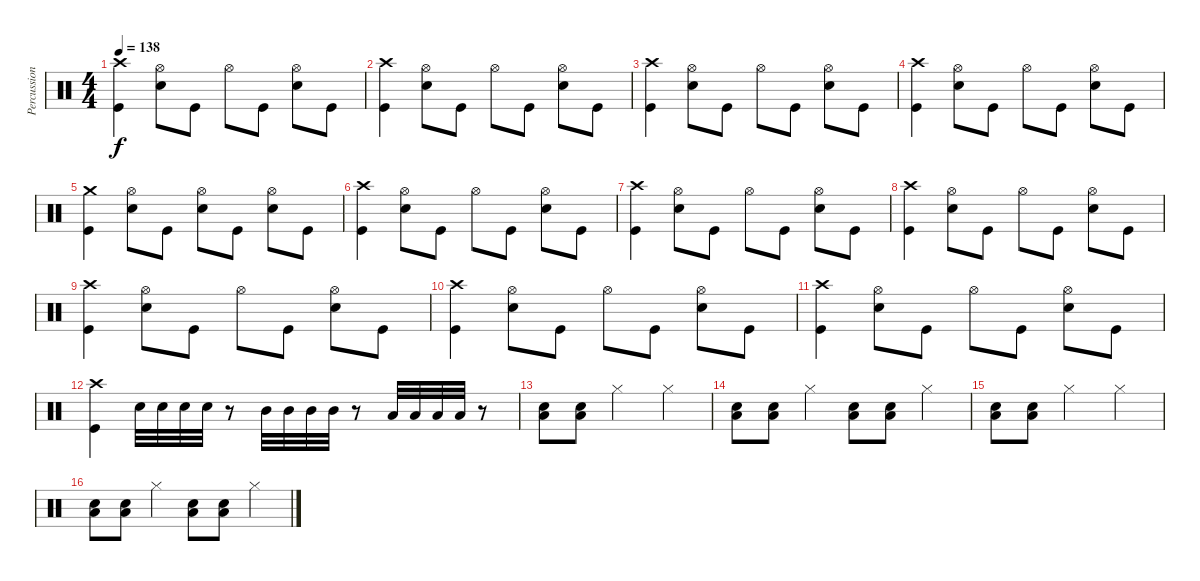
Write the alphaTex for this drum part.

\track ("Percussion" "Percussion") {instrument percussion}
\staff {score}
\articulation defaults
\ts (4 4)
\tempo 138
\clef neutral
\ks c
("Kick (hit)" "Crash high (hit)").4{dy f} ("Snare (hit) 2" "Hi-Hat (open)").8 "Kick (hit)".8 "Hi-Hat (open)".8 "Kick (hit)".8 ("Snare (hit) 2" "Hi-Hat (open)").8 "Kick (hit)".8 |
("Kick (hit)" "Crash high (hit)").4 ("Snare (hit) 2" "Hi-Hat (open)").8 "Kick (hit)".8 "Hi-Hat (open)".8 "Kick (hit)".8 ("Snare (hit) 2" "Hi-Hat (open)").8 "Kick (hit)".8 |
("Kick (hit)" "Crash high (hit)").4 ("Snare (hit) 2" "Hi-Hat (open)").8 "Kick (hit)".8 "Hi-Hat (open)".8 "Kick (hit)".8 ("Snare (hit) 2" "Hi-Hat (open)").8 "Kick (hit)".8 |
("Kick (hit)" "Crash high (hit)").4 ("Snare (hit) 2" "Hi-Hat (open)").8 "Kick (hit)".8 "Hi-Hat (open)".8 "Kick (hit)".8 ("Snare (hit) 2" "Hi-Hat (open)").8 "Kick (hit)".8 |
("Kick (hit)" "Crash medium (hit)").4 ("Snare (hit) 2" "Hi-Hat (open)").8 "Kick (hit)".8 ("Snare (hit) 2" "Hi-Hat (open)").8 "Kick (hit)".8 ("Snare (hit) 2" "Hi-Hat (open)").8 "Kick (hit)".8 |
("Kick (hit)" "Crash high (hit)").4 ("Snare (hit) 2" "Hi-Hat (open)").8 "Kick (hit)".8 "Hi-Hat (open)".8 "Kick (hit)".8 ("Snare (hit) 2" "Hi-Hat (open)").8 "Kick (hit)".8 |
("Kick (hit)" "Crash high (hit)").4 ("Snare (hit) 2" "Hi-Hat (open)").8 "Kick (hit)".8 "Hi-Hat (open)".8 "Kick (hit)".8 ("Snare (hit) 2" "Hi-Hat (open)").8 "Kick (hit)".8 |
("Kick (hit)" "Crash high (hit)").4 ("Snare (hit) 2" "Hi-Hat (open)").8 "Kick (hit)".8 "Hi-Hat (open)".8 "Kick (hit)".8 ("Snare (hit) 2" "Hi-Hat (open)").8 "Kick (hit)".8 |
("Kick (hit)" "Crash high (hit)").4 ("Snare (hit) 2" "Hi-Hat (open)").8 "Kick (hit)".8 "Hi-Hat (open)".8 "Kick (hit)".8 ("Snare (hit) 2" "Hi-Hat (open)").8 "Kick (hit)".8 |
("Kick (hit)" "Crash high (hit)").4 ("Snare (hit) 2" "Hi-Hat (open)").8 "Kick (hit)".8 "Hi-Hat (open)".8 "Kick (hit)".8 ("Snare (hit) 2" "Hi-Hat (open)").8 "Kick (hit)".8 |
("Kick (hit)" "Crash high (hit)").4 ("Snare (hit) 2" "Hi-Hat (open)").8 "Kick (hit)".8 "Hi-Hat (open)".8 "Kick (hit)".8 ("Snare (hit) 2" "Hi-Hat (open)").8 "Kick (hit)".8 |
("Kick (hit)" "Crash high (hit)").4 "Snare (hit) 2".32 "Snare (hit) 2".32 "Snare (hit) 2".32 "Snare (hit) 2".32 r.8 "Mid Tom (hit)".32 "Mid Tom (hit)".32 "Mid Tom (hit)".32 "Mid Tom (hit)".32 r.8 "Low Tom (hit)".32 "Low Tom (hit)".32 "Low Tom (hit)".32 "Low Tom (hit)".32 r.8 |
("Low Floor Tom (hit)" "Snare (hit) 2").8 ("Low Floor Tom (hit)" "Snare (hit) 2").8 "Hi-Hat (closed)".2 "Hi-Hat (closed)".4 |
("Low Floor Tom (hit)" "Snare (hit) 2").8 ("Low Floor Tom (hit)" "Snare (hit) 2").8 "Hi-Hat (closed)".4 ("Low Floor Tom (hit)" "Snare (hit) 2").8 ("Low Floor Tom (hit)" "Snare (hit) 2").8 "Hi-Hat (closed)".4 |
("Low Floor Tom (hit)" "Snare (hit) 2").8 ("Low Floor Tom (hit)" "Snare (hit) 2").8 "Hi-Hat (closed)".2 "Hi-Hat (closed)".4 |
("Low Floor Tom (hit)" "Snare (hit) 2").8 ("Low Floor Tom (hit)" "Snare (hit) 2").8 "Hi-Hat (closed)".4 ("Low Floor Tom (hit)" "Snare (hit) 2").8 ("Low Floor Tom (hit)" "Snare (hit) 2").8 "Hi-Hat (closed)".4
